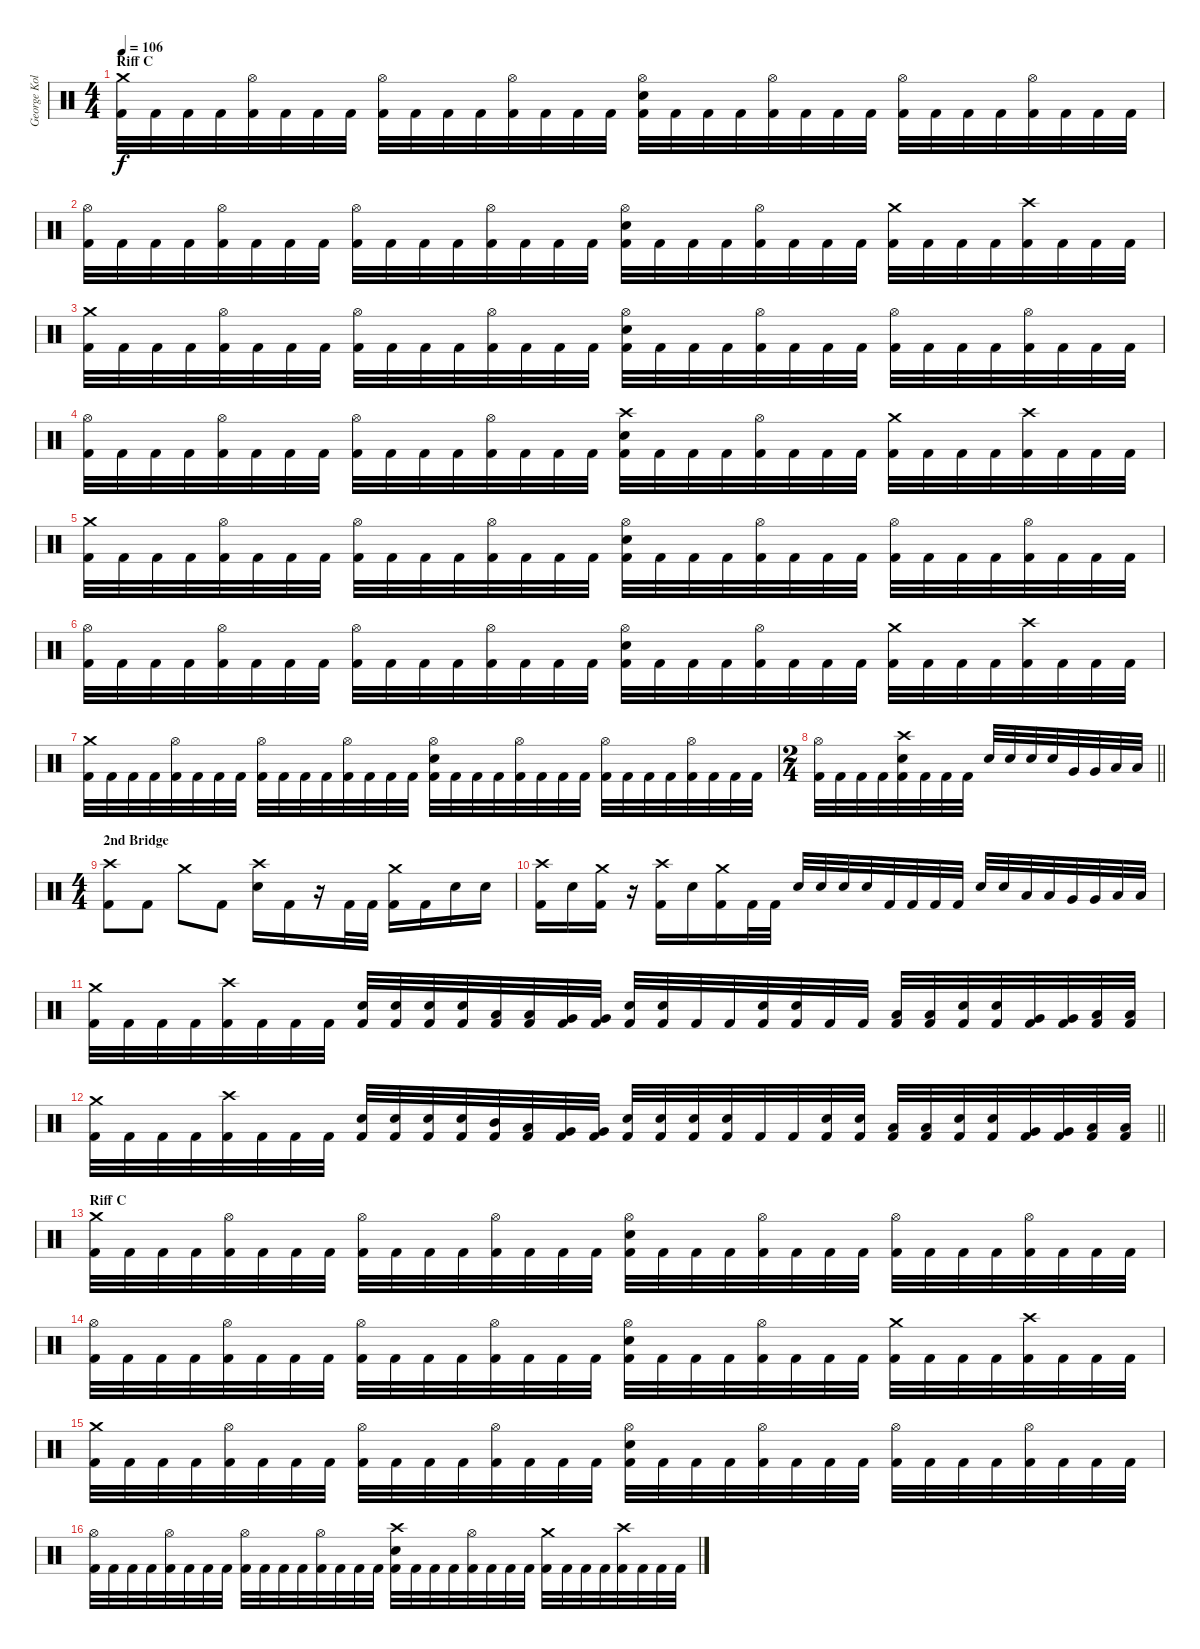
\track ("George Kollias" "George Kol") {instrument percussion}
\staff {score}
\articulation defaults
\ts (4 4)
\section ("" "Riff C")
\tempo 106
\clef neutral
\ks c
("Crash medium (hit)" "Kick (hit) 2").32{dy f} "Kick (hit) 2".32 "Kick (hit) 2".32 "Kick (hit) 2".32 ("Hi-Hat (open)" "Kick (hit) 2").32 "Kick (hit) 2".32 "Kick (hit) 2".32 "Kick (hit) 2".32 ("Hi-Hat (open)" "Kick (hit) 2").32 "Kick (hit) 2".32 "Kick (hit) 2".32 "Kick (hit) 2".32 ("Hi-Hat (open)" "Kick (hit) 2").32 "Kick (hit) 2".32 "Kick (hit) 2".32 "Kick (hit) 2".32 ("Hi-Hat (open)" "Electric Snare (hit)" "Kick (hit) 2").32 "Kick (hit) 2".32 "Kick (hit) 2".32 "Kick (hit) 2".32 ("Hi-Hat (open)" "Kick (hit) 2").32 "Kick (hit) 2".32 "Kick (hit) 2".32 "Kick (hit) 2".32 ("Hi-Hat (open)" "Kick (hit) 2").32 "Kick (hit) 2".32 "Kick (hit) 2".32 "Kick (hit) 2".32 ("Hi-Hat (open)" "Kick (hit) 2").32 "Kick (hit) 2".32 "Kick (hit) 2".32 "Kick (hit) 2".32 |
("Hi-Hat (open)" "Kick (hit) 2").32 "Kick (hit) 2".32 "Kick (hit) 2".32 "Kick (hit) 2".32 ("Hi-Hat (open)" "Kick (hit) 2").32 "Kick (hit) 2".32 "Kick (hit) 2".32 "Kick (hit) 2".32 ("Hi-Hat (open)" "Kick (hit) 2").32 "Kick (hit) 2".32 "Kick (hit) 2".32 "Kick (hit) 2".32 ("Hi-Hat (open)" "Kick (hit) 2").32 "Kick (hit) 2".32 "Kick (hit) 2".32 "Kick (hit) 2".32 ("Hi-Hat (open)" "Electric Snare (hit)" "Kick (hit) 2").32 "Kick (hit) 2".32 "Kick (hit) 2".32 "Kick (hit) 2".32 ("Hi-Hat (open)" "Kick (hit) 2").32 "Kick (hit) 2".32 "Kick (hit) 2".32 "Kick (hit) 2".32 ("Crash medium (hit)" "Kick (hit) 2").32 "Kick (hit) 2".32 "Kick (hit) 2".32 "Kick (hit) 2".32 ("Crash high (hit)" "Kick (hit) 2").32 "Kick (hit) 2".32 "Kick (hit) 2".32 "Kick (hit) 2".32 |
("Crash medium (hit)" "Kick (hit) 2").32 "Kick (hit) 2".32 "Kick (hit) 2".32 "Kick (hit) 2".32 ("Hi-Hat (open)" "Kick (hit) 2").32 "Kick (hit) 2".32 "Kick (hit) 2".32 "Kick (hit) 2".32 ("Hi-Hat (open)" "Kick (hit) 2").32 "Kick (hit) 2".32 "Kick (hit) 2".32 "Kick (hit) 2".32 ("Hi-Hat (open)" "Kick (hit) 2").32 "Kick (hit) 2".32 "Kick (hit) 2".32 "Kick (hit) 2".32 ("Hi-Hat (open)" "Electric Snare (hit)" "Kick (hit) 2").32 "Kick (hit) 2".32 "Kick (hit) 2".32 "Kick (hit) 2".32 ("Hi-Hat (open)" "Kick (hit) 2").32 "Kick (hit) 2".32 "Kick (hit) 2".32 "Kick (hit) 2".32 ("Hi-Hat (open)" "Kick (hit) 2").32 "Kick (hit) 2".32 "Kick (hit) 2".32 "Kick (hit) 2".32 ("Hi-Hat (open)" "Kick (hit) 2").32 "Kick (hit) 2".32 "Kick (hit) 2".32 "Kick (hit) 2".32 |
("Hi-Hat (open)" "Kick (hit) 2").32 "Kick (hit) 2".32 "Kick (hit) 2".32 "Kick (hit) 2".32 ("Hi-Hat (open)" "Kick (hit) 2").32 "Kick (hit) 2".32 "Kick (hit) 2".32 "Kick (hit) 2".32 ("Hi-Hat (open)" "Kick (hit) 2").32 "Kick (hit) 2".32 "Kick (hit) 2".32 "Kick (hit) 2".32 ("Hi-Hat (open)" "Kick (hit) 2").32 "Kick (hit) 2".32 "Kick (hit) 2".32 "Kick (hit) 2".32 ("Crash high (hit)" "Electric Snare (hit)" "Kick (hit) 2").32 "Kick (hit) 2".32 "Kick (hit) 2".32 "Kick (hit) 2".32 ("Hi-Hat (open)" "Kick (hit) 2").32 "Kick (hit) 2".32 "Kick (hit) 2".32 "Kick (hit) 2".32 ("Crash medium (hit)" "Kick (hit) 2").32 "Kick (hit) 2".32 "Kick (hit) 2".32 "Kick (hit) 2".32 ("Crash high (hit)" "Kick (hit) 2").32 "Kick (hit) 2".32 "Kick (hit) 2".32 "Kick (hit) 2".32 |
("Crash medium (hit)" "Kick (hit) 2").32 "Kick (hit) 2".32 "Kick (hit) 2".32 "Kick (hit) 2".32 ("Hi-Hat (open)" "Kick (hit) 2").32 "Kick (hit) 2".32 "Kick (hit) 2".32 "Kick (hit) 2".32 ("Hi-Hat (open)" "Kick (hit) 2").32 "Kick (hit) 2".32 "Kick (hit) 2".32 "Kick (hit) 2".32 ("Hi-Hat (open)" "Kick (hit) 2").32 "Kick (hit) 2".32 "Kick (hit) 2".32 "Kick (hit) 2".32 ("Hi-Hat (open)" "Electric Snare (hit)" "Kick (hit) 2").32 "Kick (hit) 2".32 "Kick (hit) 2".32 "Kick (hit) 2".32 ("Hi-Hat (open)" "Kick (hit) 2").32 "Kick (hit) 2".32 "Kick (hit) 2".32 "Kick (hit) 2".32 ("Hi-Hat (open)" "Kick (hit) 2").32 "Kick (hit) 2".32 "Kick (hit) 2".32 "Kick (hit) 2".32 ("Hi-Hat (open)" "Kick (hit) 2").32 "Kick (hit) 2".32 "Kick (hit) 2".32 "Kick (hit) 2".32 |
("Hi-Hat (open)" "Kick (hit) 2").32 "Kick (hit) 2".32 "Kick (hit) 2".32 "Kick (hit) 2".32 ("Hi-Hat (open)" "Kick (hit) 2").32 "Kick (hit) 2".32 "Kick (hit) 2".32 "Kick (hit) 2".32 ("Hi-Hat (open)" "Kick (hit) 2").32 "Kick (hit) 2".32 "Kick (hit) 2".32 "Kick (hit) 2".32 ("Hi-Hat (open)" "Kick (hit) 2").32 "Kick (hit) 2".32 "Kick (hit) 2".32 "Kick (hit) 2".32 ("Hi-Hat (open)" "Electric Snare (hit)" "Kick (hit) 2").32 "Kick (hit) 2".32 "Kick (hit) 2".32 "Kick (hit) 2".32 ("Hi-Hat (open)" "Kick (hit) 2").32 "Kick (hit) 2".32 "Kick (hit) 2".32 "Kick (hit) 2".32 ("Crash medium (hit)" "Kick (hit) 2").32 "Kick (hit) 2".32 "Kick (hit) 2".32 "Kick (hit) 2".32 ("Crash high (hit)" "Kick (hit) 2").32 "Kick (hit) 2".32 "Kick (hit) 2".32 "Kick (hit) 2".32 |
("Crash medium (hit)" "Kick (hit) 2").32 "Kick (hit) 2".32 "Kick (hit) 2".32 "Kick (hit) 2".32 ("Hi-Hat (open)" "Kick (hit) 2").32 "Kick (hit) 2".32 "Kick (hit) 2".32 "Kick (hit) 2".32 ("Hi-Hat (open)" "Kick (hit) 2").32 "Kick (hit) 2".32 "Kick (hit) 2".32 "Kick (hit) 2".32 ("Hi-Hat (open)" "Kick (hit) 2").32 "Kick (hit) 2".32 "Kick (hit) 2".32 "Kick (hit) 2".32 ("Hi-Hat (open)" "Electric Snare (hit)" "Kick (hit) 2").32 "Kick (hit) 2".32 "Kick (hit) 2".32 "Kick (hit) 2".32 ("Hi-Hat (open)" "Kick (hit) 2").32 "Kick (hit) 2".32 "Kick (hit) 2".32 "Kick (hit) 2".32 ("Hi-Hat (open)" "Kick (hit) 2").32 "Kick (hit) 2".32 "Kick (hit) 2".32 "Kick (hit) 2".32 ("Hi-Hat (open)" "Kick (hit) 2").32 "Kick (hit) 2".32 "Kick (hit) 2".32 "Kick (hit) 2".32 |
\ts (2 4)
\barLineRight lightlight
("Hi-Hat (open)" "Kick (hit) 2").32 "Kick (hit) 2".32 "Kick (hit) 2".32 "Kick (hit) 2".32 ("Crash high (hit)" "Electric Snare (hit)" "Kick (hit) 2").32 "Kick (hit) 2".32 "Kick (hit) 2".32 "Kick (hit) 2".32 "Electric Snare (hit)".32 "Electric Snare (hit)".32 "Electric Snare (hit)".32 "Electric Snare (hit)".32 "Very Low Tom (hit)".32 "Very Low Tom (hit)".32 "Low Floor Tom (hit)".32 "Low Floor Tom (hit)".32 |
\ts (4 4)
\section ("" "2nd Bridge")
("Crash high (hit)" "Kick (hit) 2").8 "Kick (hit) 2".8 "Crash medium (hit)".8 "Kick (hit) 2".8 ("Crash high (hit)" "Electric Snare (hit)").16 "Kick (hit) 2".16 r.16 "Kick (hit) 2".32 "Kick (hit) 2".32 ("Crash medium (hit)" "Kick (hit) 2").16 "Kick (hit) 2".16 "Electric Snare (hit)".16 "Electric Snare (hit)".16 |
("Crash high (hit)" "Kick (hit) 2").16 "Electric Snare (hit)".16 ("Crash medium (hit)" "Kick (hit) 2").16 r.16 ("Crash high (hit)" "Kick (hit) 2").16 "Electric Snare (hit)".16 ("Crash medium (hit)" "Kick (hit) 2").16 "Kick (hit) 2".32 "Kick (hit) 2".32 "Electric Snare (hit)".32 "Electric Snare (hit)".32 "Electric Snare (hit)".32 "Electric Snare (hit)".32 "Kick (hit) 2".32 "Kick (hit) 2".32 "Kick (hit) 2".32 "Kick (hit) 2".32 "Electric Snare (hit)".32 "Electric Snare (hit)".32 "Low Tom (hit)".32 "Low Tom (hit)".32 "Very Low Tom (hit)".32 "Very Low Tom (hit)".32 "Low Floor Tom (hit)".32 "Low Floor Tom (hit)".32 |
("Crash medium (hit)" "Kick (hit) 2").32 "Kick (hit) 2".32 "Kick (hit) 2".32 "Kick (hit) 2".32 ("Crash high (hit)" "Kick (hit) 2").32 "Kick (hit) 2".32 "Kick (hit) 2".32 "Kick (hit) 2".32 ("Electric Snare (hit)" "Kick (hit) 2").32 ("Electric Snare (hit)" "Kick (hit) 2").32 ("Electric Snare (hit)" "Kick (hit) 2").32 ("Electric Snare (hit)" "Kick (hit) 2").32 ("Low Tom (hit)" "Kick (hit) 2").32 ("Low Tom (hit)" "Kick (hit) 2").32 ("Very Low Tom (hit)" "Kick (hit) 2").32 ("Very Low Tom (hit)" "Kick (hit) 2").32 ("Electric Snare (hit)" "Kick (hit) 2").32 ("Electric Snare (hit)" "Kick (hit) 2").32 "Kick (hit) 2".32 "Kick (hit) 2".32 ("Electric Snare (hit)" "Kick (hit) 2").32 ("Electric Snare (hit)" "Kick (hit) 2").32 "Kick (hit) 2".32 "Kick (hit) 2".32 ("Low Tom (hit)" "Kick (hit) 2").32 ("Low Tom (hit)" "Kick (hit) 2").32 ("Electric Snare (hit)" "Kick (hit) 2").32 ("Electric Snare (hit)" "Kick (hit) 2").32 ("Very Low Tom (hit)" "Kick (hit) 2").32 ("Very Low Tom (hit)" "Kick (hit) 2").32 ("Low Floor Tom (hit)" "Kick (hit) 2").32 ("Low Floor Tom (hit)" "Kick (hit) 2").32 |
\barLineRight lightlight
("Crash medium (hit)" "Kick (hit) 2").32 "Kick (hit) 2".32 "Kick (hit) 2".32 "Kick (hit) 2".32 ("Crash high (hit)" "Kick (hit) 2").32 "Kick (hit) 2".32 "Kick (hit) 2".32 "Kick (hit) 2".32 ("Electric Snare (hit)" "Kick (hit) 2").32 ("Electric Snare (hit)" "Kick (hit) 2").32 ("Electric Snare (hit)" "Kick (hit) 2").32 ("Electric Snare (hit)" "Kick (hit) 2").32 ("Mid Tom (hit)" "Kick (hit) 2").32 ("Low Tom (hit)" "Kick (hit) 2").32 ("Very Low Tom (hit)" "Kick (hit) 2").32 ("Very Low Tom (hit)" "Kick (hit) 2").32 ("Electric Snare (hit)" "Kick (hit) 2").32 ("Electric Snare (hit)" "Kick (hit) 2").32 ("Electric Snare (hit)" "Kick (hit) 2").32 ("Electric Snare (hit)" "Kick (hit) 2").32 "Kick (hit) 2".32 "Kick (hit) 2".32 ("Electric Snare (hit)" "Kick (hit) 2").32 ("Electric Snare (hit)" "Kick (hit) 2").32 ("Low Tom (hit)" "Kick (hit) 2").32 ("Low Tom (hit)" "Kick (hit) 2").32 ("Electric Snare (hit)" "Kick (hit) 2").32 ("Electric Snare (hit)" "Kick (hit) 2").32 ("Very Low Tom (hit)" "Kick (hit) 2").32 ("Very Low Tom (hit)" "Kick (hit) 2").32 ("Low Floor Tom (hit)" "Kick (hit) 2").32 ("Low Floor Tom (hit)" "Kick (hit) 2").32 |
\section ("" "Riff C")
("Crash medium (hit)" "Kick (hit) 2").32 "Kick (hit) 2".32 "Kick (hit) 2".32 "Kick (hit) 2".32 ("Hi-Hat (open)" "Kick (hit) 2").32 "Kick (hit) 2".32 "Kick (hit) 2".32 "Kick (hit) 2".32 ("Hi-Hat (open)" "Kick (hit) 2").32 "Kick (hit) 2".32 "Kick (hit) 2".32 "Kick (hit) 2".32 ("Hi-Hat (open)" "Kick (hit) 2").32 "Kick (hit) 2".32 "Kick (hit) 2".32 "Kick (hit) 2".32 ("Hi-Hat (open)" "Electric Snare (hit)" "Kick (hit) 2").32 "Kick (hit) 2".32 "Kick (hit) 2".32 "Kick (hit) 2".32 ("Hi-Hat (open)" "Kick (hit) 2").32 "Kick (hit) 2".32 "Kick (hit) 2".32 "Kick (hit) 2".32 ("Hi-Hat (open)" "Kick (hit) 2").32 "Kick (hit) 2".32 "Kick (hit) 2".32 "Kick (hit) 2".32 ("Hi-Hat (open)" "Kick (hit) 2").32 "Kick (hit) 2".32 "Kick (hit) 2".32 "Kick (hit) 2".32 |
("Hi-Hat (open)" "Kick (hit) 2").32 "Kick (hit) 2".32 "Kick (hit) 2".32 "Kick (hit) 2".32 ("Hi-Hat (open)" "Kick (hit) 2").32 "Kick (hit) 2".32 "Kick (hit) 2".32 "Kick (hit) 2".32 ("Hi-Hat (open)" "Kick (hit) 2").32 "Kick (hit) 2".32 "Kick (hit) 2".32 "Kick (hit) 2".32 ("Hi-Hat (open)" "Kick (hit) 2").32 "Kick (hit) 2".32 "Kick (hit) 2".32 "Kick (hit) 2".32 ("Hi-Hat (open)" "Electric Snare (hit)" "Kick (hit) 2").32 "Kick (hit) 2".32 "Kick (hit) 2".32 "Kick (hit) 2".32 ("Hi-Hat (open)" "Kick (hit) 2").32 "Kick (hit) 2".32 "Kick (hit) 2".32 "Kick (hit) 2".32 ("Crash medium (hit)" "Kick (hit) 2").32 "Kick (hit) 2".32 "Kick (hit) 2".32 "Kick (hit) 2".32 ("Crash high (hit)" "Kick (hit) 2").32 "Kick (hit) 2".32 "Kick (hit) 2".32 "Kick (hit) 2".32 |
("Crash medium (hit)" "Kick (hit) 2").32 "Kick (hit) 2".32 "Kick (hit) 2".32 "Kick (hit) 2".32 ("Hi-Hat (open)" "Kick (hit) 2").32 "Kick (hit) 2".32 "Kick (hit) 2".32 "Kick (hit) 2".32 ("Hi-Hat (open)" "Kick (hit) 2").32 "Kick (hit) 2".32 "Kick (hit) 2".32 "Kick (hit) 2".32 ("Hi-Hat (open)" "Kick (hit) 2").32 "Kick (hit) 2".32 "Kick (hit) 2".32 "Kick (hit) 2".32 ("Hi-Hat (open)" "Electric Snare (hit)" "Kick (hit) 2").32 "Kick (hit) 2".32 "Kick (hit) 2".32 "Kick (hit) 2".32 ("Hi-Hat (open)" "Kick (hit) 2").32 "Kick (hit) 2".32 "Kick (hit) 2".32 "Kick (hit) 2".32 ("Hi-Hat (open)" "Kick (hit) 2").32 "Kick (hit) 2".32 "Kick (hit) 2".32 "Kick (hit) 2".32 ("Hi-Hat (open)" "Kick (hit) 2").32 "Kick (hit) 2".32 "Kick (hit) 2".32 "Kick (hit) 2".32 |
("Hi-Hat (open)" "Kick (hit) 2").32 "Kick (hit) 2".32 "Kick (hit) 2".32 "Kick (hit) 2".32 ("Hi-Hat (open)" "Kick (hit) 2").32 "Kick (hit) 2".32 "Kick (hit) 2".32 "Kick (hit) 2".32 ("Hi-Hat (open)" "Kick (hit) 2").32 "Kick (hit) 2".32 "Kick (hit) 2".32 "Kick (hit) 2".32 ("Hi-Hat (open)" "Kick (hit) 2").32 "Kick (hit) 2".32 "Kick (hit) 2".32 "Kick (hit) 2".32 ("Crash high (hit)" "Electric Snare (hit)" "Kick (hit) 2").32 "Kick (hit) 2".32 "Kick (hit) 2".32 "Kick (hit) 2".32 ("Hi-Hat (open)" "Kick (hit) 2").32 "Kick (hit) 2".32 "Kick (hit) 2".32 "Kick (hit) 2".32 ("Crash medium (hit)" "Kick (hit) 2").32 "Kick (hit) 2".32 "Kick (hit) 2".32 "Kick (hit) 2".32 ("Crash high (hit)" "Kick (hit) 2").32 "Kick (hit) 2".32 "Kick (hit) 2".32 "Kick (hit) 2".32
